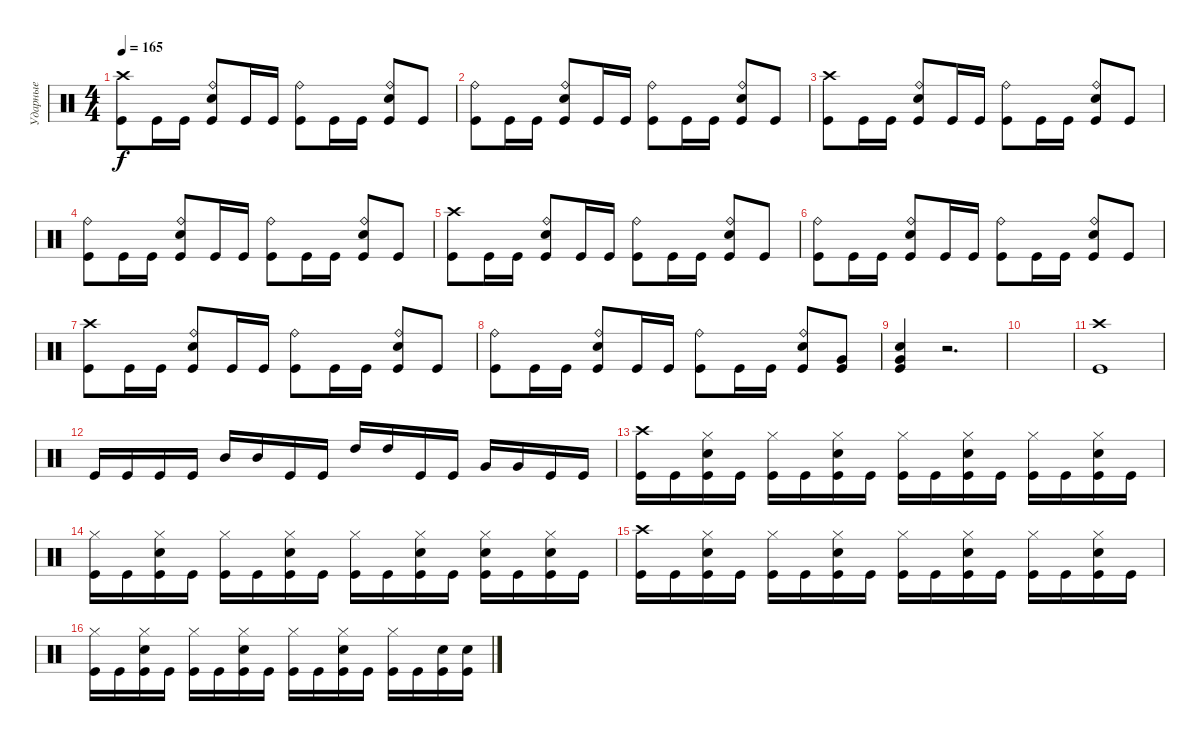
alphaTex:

\track ("Ударные" "Ударные") {instrument percussion}
\staff {score}
\articulation defaults
\ts (4 4)
\tempo 165
\clef neutral
\ks c
("Crash high (hit)" "Kick (hit)").8{dy f} "Kick (hit)".16 "Kick (hit)".16 ("Ride (bell)" "Electric Snare (hit)" "Kick (hit)").8 "Kick (hit)".16 "Kick (hit)".16 ("Ride (bell)" "Kick (hit)").8 "Kick (hit)".16 "Kick (hit)".16 ("Ride (bell)" "Electric Snare (hit)" "Kick (hit)").8 "Kick (hit)".8 |
("Ride (bell)" "Kick (hit)").8 "Kick (hit)".16 "Kick (hit)".16 ("Ride (bell)" "Electric Snare (hit)" "Kick (hit)").8 "Kick (hit)".16 "Kick (hit)".16 ("Ride (bell)" "Kick (hit)").8 "Kick (hit)".16 "Kick (hit)".16 ("Ride (bell)" "Electric Snare (hit)" "Kick (hit)").8 "Kick (hit)".8 |
("Crash high (hit)" "Kick (hit)").8 "Kick (hit)".16 "Kick (hit)".16 ("Ride (bell)" "Electric Snare (hit)" "Kick (hit)").8 "Kick (hit)".16 "Kick (hit)".16 ("Ride (bell)" "Kick (hit)").8 "Kick (hit)".16 "Kick (hit)".16 ("Ride (bell)" "Electric Snare (hit)" "Kick (hit)").8 "Kick (hit)".8 |
("Ride (bell)" "Kick (hit)").8 "Kick (hit)".16 "Kick (hit)".16 ("Ride (bell)" "Electric Snare (hit)" "Kick (hit)").8 "Kick (hit)".16 "Kick (hit)".16 ("Ride (bell)" "Kick (hit)").8 "Kick (hit)".16 "Kick (hit)".16 ("Ride (bell)" "Electric Snare (hit)" "Kick (hit)").8 "Kick (hit)".8 |
("Crash high (hit)" "Kick (hit)").8 "Kick (hit)".16 "Kick (hit)".16 ("Ride (bell)" "Electric Snare (hit)" "Kick (hit)").8 "Kick (hit)".16 "Kick (hit)".16 ("Ride (bell)" "Kick (hit)").8 "Kick (hit)".16 "Kick (hit)".16 ("Ride (bell)" "Electric Snare (hit)" "Kick (hit)").8 "Kick (hit)".8 |
("Ride (bell)" "Kick (hit)").8 "Kick (hit)".16 "Kick (hit)".16 ("Ride (bell)" "Electric Snare (hit)" "Kick (hit)").8 "Kick (hit)".16 "Kick (hit)".16 ("Ride (bell)" "Kick (hit)").8 "Kick (hit)".16 "Kick (hit)".16 ("Ride (bell)" "Electric Snare (hit)" "Kick (hit)").8 "Kick (hit)".8 |
("Crash high (hit)" "Kick (hit)").8 "Kick (hit)".16 "Kick (hit)".16 ("Ride (bell)" "Electric Snare (hit)" "Kick (hit)").8 "Kick (hit)".16 "Kick (hit)".16 ("Ride (bell)" "Kick (hit)").8 "Kick (hit)".16 "Kick (hit)".16 ("Ride (bell)" "Electric Snare (hit)" "Kick (hit)").8 "Kick (hit)".8 |
("Ride (bell)" "Kick (hit)").8 "Kick (hit)".16 "Kick (hit)".16 ("Ride (bell)" "Electric Snare (hit)" "Kick (hit)").8 "Kick (hit)".16 "Kick (hit)".16 ("Ride (bell)" "Kick (hit)").8 "Kick (hit)".16 "Kick (hit)".16 ("Ride (bell)" "Electric Snare (hit)" "Kick (hit)").8 ("Very Low Tom (hit)" "Kick (hit)").8 |
("Electric Snare (hit)" "Very Low Tom (hit)" "Kick (hit)").4 r.2{d} |
|
("Crash high (hit)" "Kick (hit)").1 |
"Kick (hit)".16 "Kick (hit)".16 "Kick (hit)".16 "Kick (hit)".16 "Mid Tom (hit)".16 "Mid Tom (hit)".16 "Kick (hit)".16 "Kick (hit)".16 "High Tom (hit)".16 "High Tom (hit)".16 "Kick (hit)".16 "Kick (hit)".16 "Very Low Tom (hit)".16 "Very Low Tom (hit)".16 "Kick (hit)".16 "Kick (hit)".16 |
("Crash high (hit)" "Kick (hit)").16 "Kick (hit)".16 ("Hi-Hat (closed)" "Electric Snare (hit)" "Kick (hit)").16 "Kick (hit)".16 ("Hi-Hat (closed)" "Kick (hit)").16 "Kick (hit)".16 ("Hi-Hat (closed)" "Electric Snare (hit)" "Kick (hit)").16 "Kick (hit)".16 ("Hi-Hat (closed)" "Kick (hit)").16 "Kick (hit)".16 ("Hi-Hat (closed)" "Electric Snare (hit)" "Kick (hit)").16 "Kick (hit)".16 ("Hi-Hat (closed)" "Kick (hit)").16 "Kick (hit)".16 ("Hi-Hat (closed)" "Electric Snare (hit)" "Kick (hit)").16 "Kick (hit)".16 |
("Hi-Hat (closed)" "Kick (hit)").16 "Kick (hit)".16 ("Hi-Hat (closed)" "Electric Snare (hit)" "Kick (hit)").16 "Kick (hit)".16 ("Hi-Hat (closed)" "Kick (hit)").16 "Kick (hit)".16 ("Hi-Hat (closed)" "Electric Snare (hit)" "Kick (hit)").16 "Kick (hit)".16 ("Hi-Hat (closed)" "Kick (hit)").16 "Kick (hit)".16 ("Hi-Hat (closed)" "Electric Snare (hit)" "Kick (hit)").16 "Kick (hit)".16 ("Hi-Hat (closed)" "Electric Snare (hit)" "Kick (hit)").16 "Kick (hit)".16 ("Hi-Hat (closed)" "Electric Snare (hit)" "Kick (hit)").16 "Kick (hit)".16 |
("Crash high (hit)" "Kick (hit)").16 "Kick (hit)".16 ("Hi-Hat (closed)" "Electric Snare (hit)" "Kick (hit)").16 "Kick (hit)".16 ("Hi-Hat (closed)" "Kick (hit)").16 "Kick (hit)".16 ("Hi-Hat (closed)" "Electric Snare (hit)" "Kick (hit)").16 "Kick (hit)".16 ("Hi-Hat (closed)" "Kick (hit)").16 "Kick (hit)".16 ("Hi-Hat (closed)" "Electric Snare (hit)" "Kick (hit)").16 "Kick (hit)".16 ("Hi-Hat (closed)" "Kick (hit)").16 "Kick (hit)".16 ("Hi-Hat (closed)" "Electric Snare (hit)" "Kick (hit)").16 "Kick (hit)".16 |
("Hi-Hat (closed)" "Kick (hit)").16 "Kick (hit)".16 ("Hi-Hat (closed)" "Electric Snare (hit)" "Kick (hit)").16 "Kick (hit)".16 ("Hi-Hat (closed)" "Kick (hit)").16 "Kick (hit)".16 ("Hi-Hat (closed)" "Electric Snare (hit)" "Kick (hit)").16 "Kick (hit)".16 ("Hi-Hat (closed)" "Kick (hit)").16 "Kick (hit)".16 ("Hi-Hat (closed)" "Electric Snare (hit)" "Kick (hit)").16 "Kick (hit)".16 ("Hi-Hat (closed)" "Kick (hit)").16 "Kick (hit)".16 ("Electric Snare (hit)" "Kick (hit)").16 ("Electric Snare (hit)" "Kick (hit)").16
